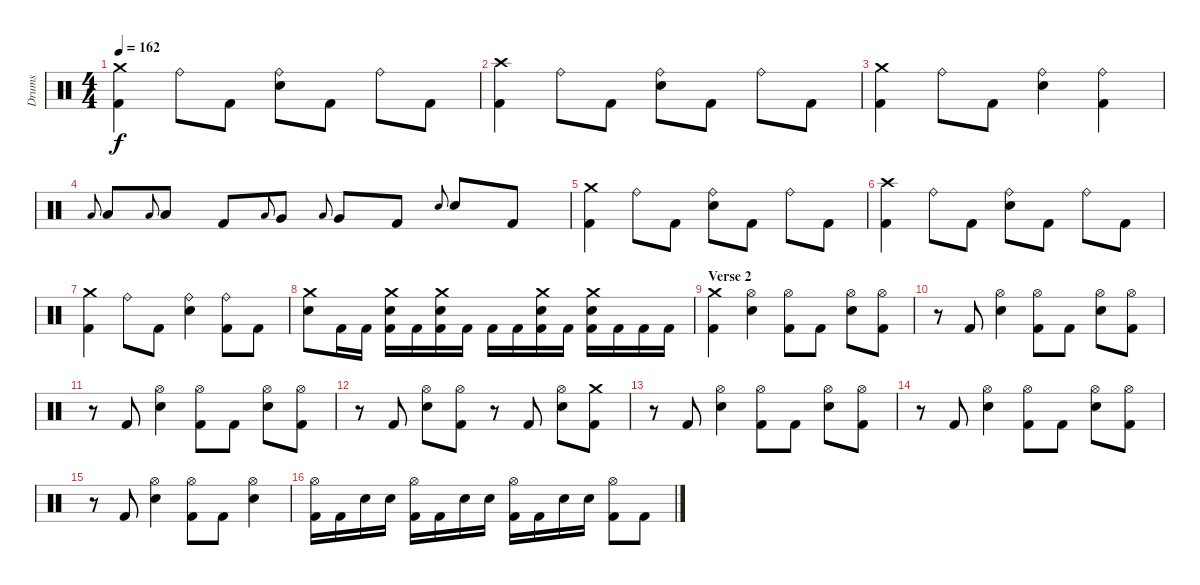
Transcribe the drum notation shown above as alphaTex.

\track ("Drums" "Drums") {instrument percussion}
\staff {score}
\articulation defaults
\ts (4 4)
\tempo 162
\clef neutral
\ks c
("Crash medium (hit)" "Kick (hit) 2").4{dy f} "Ride (bell)".8 "Kick (hit) 2".8 ("Ride (bell)" "Snare (hit) 2").8 "Kick (hit) 2".8 "Ride (bell)".8 "Kick (hit) 2".8 |
("Crash high (hit)" "Kick (hit) 2").4 "Ride (bell)".8 "Kick (hit) 2".8 ("Ride (bell)" "Snare (hit) 2").8 "Kick (hit) 2".8 "Ride (bell)".8 "Kick (hit) 2".8 |
("Crash medium (hit)" "Kick (hit) 2").4 "Ride (bell)".8 "Kick (hit) 2".8 ("Ride (bell)" "Snare (hit) 2").4 ("Ride (bell)" "Kick (hit) 2").4 |
"Low Tom (hit)".8{gr onbeat} "Low Tom (hit)".8 "Low Tom (hit)".8{gr onbeat} "Low Tom (hit)".8 "Kick (hit) 2".8 "Low Floor Tom (hit)".8{gr onbeat} "Very Low Tom (hit)".8 "Low Floor Tom (hit)".8{gr onbeat} "Very Low Tom (hit)".8 "Kick (hit) 2".8 "Snare (hit) 2".8{gr onbeat} "Snare (hit) 2".8 "Kick (hit) 2".8 |
("Crash medium (hit)" "Kick (hit) 2").4 "Ride (bell)".8 "Kick (hit) 2".8 ("Ride (bell)" "Snare (hit) 2").8 "Kick (hit) 2".8 "Ride (bell)".8 "Kick (hit) 2".8 |
("Crash high (hit)" "Kick (hit) 2").4 "Ride (bell)".8 "Kick (hit) 2".8 ("Ride (bell)" "Snare (hit) 2").8 "Kick (hit) 2".8 "Ride (bell)".8 "Kick (hit) 2".8 |
("Crash medium (hit)" "Kick (hit) 2").4 "Ride (bell)".8 "Kick (hit) 2".8 ("Ride (bell)" "Snare (hit) 2").4 ("Ride (bell)" "Kick (hit) 2").8 "Kick (hit) 2".8 |
("Crash medium (hit)" "Snare (hit) 2").8 "Kick (hit) 2".16 "Kick (hit) 2".16 ("Crash medium (hit)" "Snare (hit) 2" "Kick (hit) 2").16 "Kick (hit) 2".16 ("Crash medium (hit)" "Snare (hit) 2" "Kick (hit) 2").16 "Kick (hit) 2".16 "Kick (hit) 2".16 "Kick (hit) 2".16 ("Crash medium (hit)" "Snare (hit) 2" "Kick (hit) 2").16 "Kick (hit) 2".16 ("Crash medium (hit)" "Snare (hit) 2" "Kick (hit) 2").16 "Kick (hit) 2".16 "Kick (hit) 2".16 "Kick (hit) 2".16 |
\section ("" "Verse 2")
("Crash medium (hit)" "Kick (hit) 2").4 ("Hi-Hat (open)" "Snare (hit) 2").4 ("Hi-Hat (open)" "Kick (hit) 2").8 "Kick (hit) 2".8 ("Hi-Hat (open)" "Snare (hit) 2").8 ("Hi-Hat (open)" "Kick (hit) 2").8 |
r.8 "Kick (hit) 2".8 ("Hi-Hat (open)" "Snare (hit) 2").4 ("Hi-Hat (open)" "Kick (hit) 2").8 "Kick (hit) 2".8 ("Hi-Hat (open)" "Snare (hit) 2").8 ("Hi-Hat (open)" "Kick (hit) 2").8 |
r.8 "Kick (hit) 2".8 ("Hi-Hat (open)" "Snare (hit) 2").4 ("Hi-Hat (open)" "Kick (hit) 2").8 "Kick (hit) 2".8 ("Hi-Hat (open)" "Snare (hit) 2").8 ("Hi-Hat (open)" "Kick (hit) 2").8 |
r.8 "Kick (hit) 2".8 ("Hi-Hat (open)" "Snare (hit) 2").8 ("Hi-Hat (open)" "Kick (hit) 2").8 r.8 "Kick (hit) 2".8 ("Hi-Hat (open)" "Snare (hit) 2").8 ("Crash medium (hit)" "Kick (hit) 2").8 |
r.8 "Kick (hit) 2".8 ("Hi-Hat (open)" "Snare (hit) 2").4 ("Hi-Hat (open)" "Kick (hit) 2").8 "Kick (hit) 2".8 ("Hi-Hat (open)" "Snare (hit) 2").8 ("Hi-Hat (open)" "Kick (hit) 2").8 |
r.8 "Kick (hit) 2".8 ("Hi-Hat (open)" "Snare (hit) 2").4 ("Hi-Hat (open)" "Kick (hit) 2").8 "Kick (hit) 2".8 ("Hi-Hat (open)" "Snare (hit) 2").8 ("Hi-Hat (open)" "Kick (hit) 2").8 |
r.8 "Kick (hit) 2".8 ("Hi-Hat (open)" "Snare (hit) 2").4 ("Hi-Hat (open)" "Kick (hit) 2").8 "Kick (hit) 2".8 ("Hi-Hat (open)" "Snare (hit) 2").4 |
("Hi-Hat (open)" "Kick (hit) 2").16 "Kick (hit) 2".16 "Snare (hit) 2".16 "Snare (hit) 2".16 ("Hi-Hat (open)" "Kick (hit) 2").16 "Kick (hit) 2".16 "Snare (hit) 2".16 "Snare (hit) 2".16 ("Hi-Hat (open)" "Kick (hit) 2").16 "Kick (hit) 2".16 "Snare (hit) 2".16 "Snare (hit) 2".16 ("Hi-Hat (open)" "Kick (hit) 2").8 "Kick (hit) 2".8
